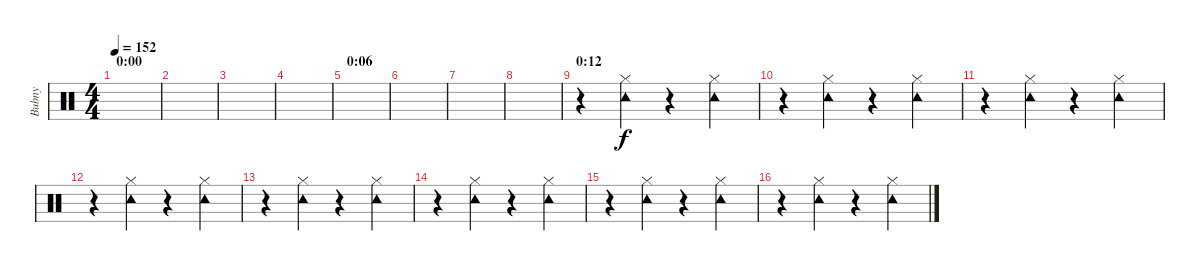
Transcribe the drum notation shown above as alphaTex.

\track ("Bubny" "Bubny") {instrument percussion}
\staff {score}
\articulation defaults
\ts (4 4)
\section ("" "0:00")
\tempo 152
\clef neutral
\ks c
|
|
|
|
\section ("" "0:06")
|
|
|
|
\section ("" "0:12")
r.4 ("Hi-Hat (closed)" "Tambourine (hit)").4 r.4 ("Hi-Hat (closed)" "Tambourine (hit)").4 |
r.4 ("Hi-Hat (closed)" "Tambourine (hit)").4 r.4 ("Hi-Hat (closed)" "Tambourine (hit)").4 |
r.4 ("Hi-Hat (closed)" "Tambourine (hit)").4 r.4 ("Hi-Hat (closed)" "Tambourine (hit)").4 |
r.4 ("Hi-Hat (closed)" "Tambourine (hit)").4 r.4 ("Hi-Hat (closed)" "Tambourine (hit)").4 |
r.4 ("Hi-Hat (closed)" "Tambourine (hit)").4 r.4 ("Hi-Hat (closed)" "Tambourine (hit)").4 |
r.4 ("Hi-Hat (closed)" "Tambourine (hit)").4 r.4 ("Hi-Hat (closed)" "Tambourine (hit)").4 |
r.4 ("Hi-Hat (closed)" "Tambourine (hit)").4 r.4 ("Hi-Hat (closed)" "Tambourine (hit)").4 |
r.4 ("Hi-Hat (closed)" "Tambourine (hit)").4 r.4 ("Hi-Hat (closed)" "Tambourine (hit)").4
